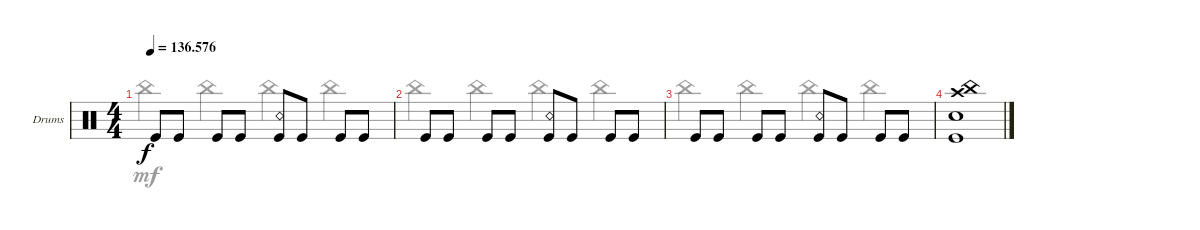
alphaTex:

\bracketExtendMode groupsimilarinstruments
\firstSystemTrackNameOrientation horizontal
\otherSystemsTrackNameOrientation horizontal
\track ("Drumkit" "Drums") {instrument percussion}
\staff {score}
\articulation defaults
\voice
\ts (4 4)
\tempo
136.576
\accidentals auto
\clef neutral
\ottava regular
\simile none
\ks c "Kick (hit)".8{dy f} "Kick (hit)".8 "Kick (hit)".8 "Kick (hit)".8
("Kick (hit)" "Snare (rim shot)").8 "Kick (hit)".8 "Kick (hit)".8 "Kick (hit)".8 |
"Kick (hit)".8 "Kick (hit)".8 "Kick (hit)".8 "Kick (hit)".8 ("Kick (hit)" "Snare (rim shot)").8 "Kick (hit)".8 "Kick (hit)".8 "Kick (hit)".8 |
"Kick (hit)".8 "Kick (hit)".8 "Kick (hit)".8 "Kick (hit)".8 ("Kick (hit)" "Snare (rim shot)").8 "Kick (hit)".8 "Kick (hit)".8 "Kick (hit)".8 |
("China (hit)" "Crash high (hit)" "Snare (hit) 2" "Kick (hit)").1 |
|
|
\voice
\clef neutral
\ottava regular
\simile none
\ks c "China (hit)".4{dy mf} "China (hit)".4 "China (hit)".4 "China (hit)".4
|
"China (hit)".4 "China (hit)".4 "China (hit)".4 "China (hit)".4 |
"China (hit)".4 "China (hit)".4 "China (hit)".4 "China (hit)".4 |
|
|
|
